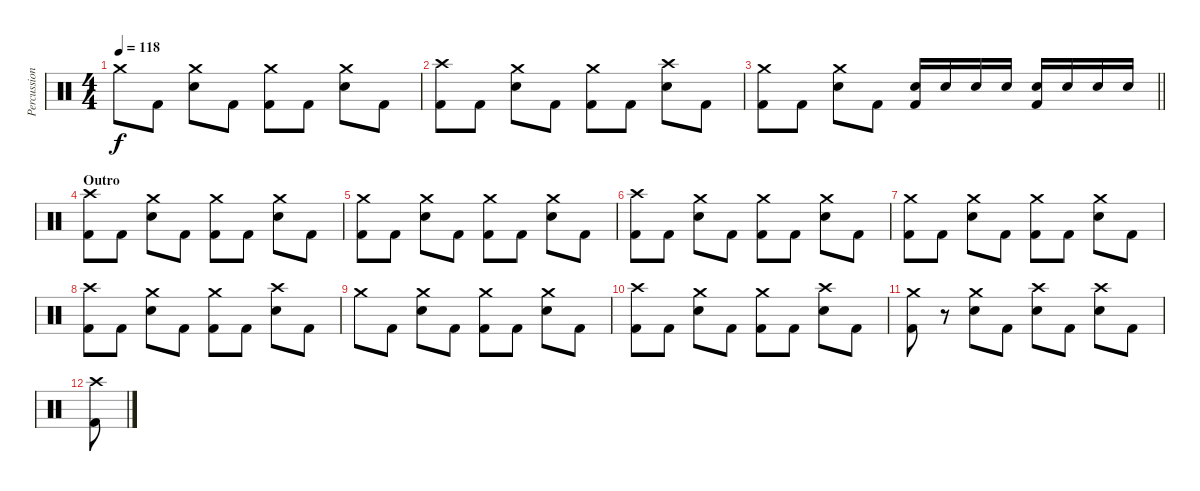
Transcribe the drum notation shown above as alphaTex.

\track ("Percussion" "Percussion") {instrument percussion}
\staff {score}
\articulation defaults
\ts (4 4)
\tempo 118
\clef neutral
\ks c "Crash medium (hit)".8{dy f} "Kick (hit) 2".8
("Crash medium (hit)" "Electric Snare (hit)").8 "Kick (hit) 2".8 ("Crash medium (hit)" "Kick (hit) 2").8 "Kick (hit) 2".8 ("Crash medium (hit)" "Electric Snare (hit)").8 "Kick (hit) 2".8 |
("Crash high (hit)" "Kick (hit) 2").8 "Kick (hit) 2".8 ("Crash medium (hit)" "Electric Snare (hit)").8 "Kick (hit) 2".8 ("Crash medium (hit)" "Kick (hit) 2").8 "Kick (hit) 2".8 ("Crash high (hit)" "Electric Snare (hit)").8 "Kick (hit) 2".8 |
\barLineRight lightlight
("Crash medium (hit)" "Kick (hit) 2").8 "Kick (hit) 2".8 ("Crash medium (hit)" "Electric Snare (hit)").8 "Kick (hit) 2".8 ("Electric Snare (hit)" "Kick (hit) 2").16 "Electric Snare (hit)".16 "Electric Snare (hit)".16 "Electric Snare (hit)".16 ("Electric Snare (hit)" "Kick (hit) 2").16 "Electric Snare (hit)".16 "Electric Snare (hit)".16 "Electric Snare (hit)".16 |
\section ("" "Outro")
("Crash high (hit)" "Kick (hit) 2").8 "Kick (hit) 2".8 ("Crash medium (hit)" "Electric Snare (hit)").8 "Kick (hit) 2".8 ("Crash medium (hit)" "Kick (hit) 2").8 "Kick (hit) 2".8 ("Crash medium (hit)" "Electric Snare (hit)").8 "Kick (hit) 2".8 |
("Crash medium (hit)" "Kick (hit) 2").8 "Kick (hit) 2".8 ("Crash medium (hit)" "Electric Snare (hit)").8 "Kick (hit) 2".8 ("Crash medium (hit)" "Kick (hit) 2").8 "Kick (hit) 2".8 ("Crash medium (hit)" "Electric Snare (hit)").8 "Kick (hit) 2".8 |
("Crash high (hit)" "Kick (hit) 2").8 "Kick (hit) 2".8 ("Crash medium (hit)" "Electric Snare (hit)").8 "Kick (hit) 2".8 ("Crash medium (hit)" "Kick (hit) 2").8 "Kick (hit) 2".8 ("Crash medium (hit)" "Electric Snare (hit)").8 "Kick (hit) 2".8 |
("Crash medium (hit)" "Kick (hit) 2").8 "Kick (hit) 2".8 ("Crash medium (hit)" "Electric Snare (hit)").8 "Kick (hit) 2".8 ("Crash medium (hit)" "Kick (hit) 2").8 "Kick (hit) 2".8 ("Crash medium (hit)" "Electric Snare (hit)").8 "Kick (hit) 2".8 |
("Crash high (hit)" "Kick (hit) 2").8 "Kick (hit) 2".8 ("Crash medium (hit)" "Electric Snare (hit)").8 "Kick (hit) 2".8 ("Crash medium (hit)" "Kick (hit) 2").8 "Kick (hit) 2".8 ("Crash high (hit)" "Electric Snare (hit)").8 "Kick (hit) 2".8 |
"Crash medium (hit)".8 "Kick (hit) 2".8 ("Crash medium (hit)" "Electric Snare (hit)").8 "Kick (hit) 2".8 ("Crash medium (hit)" "Kick (hit) 2").8 "Kick (hit) 2".8 ("Crash medium (hit)" "Electric Snare (hit)").8 "Kick (hit) 2".8 |
("Crash high (hit)" "Kick (hit) 2").8 "Kick (hit) 2".8 ("Crash medium (hit)" "Electric Snare (hit)").8 "Kick (hit) 2".8 ("Crash medium (hit)" "Kick (hit) 2").8 "Kick (hit) 2".8 ("Crash high (hit)" "Electric Snare (hit)").8 "Kick (hit) 2".8 |
("Crash medium (hit)" "Kick (hit) 2").8 r.8 ("Crash medium (hit)" "Electric Snare (hit)").8 "Kick (hit) 2".8 ("Crash high (hit)" "Electric Snare (hit)").8 "Kick (hit) 2".8 ("Crash high (hit)" "Electric Snare (hit)").8 "Kick (hit) 2".8 |
("Crash high (hit)" "Kick (hit) 2").8
